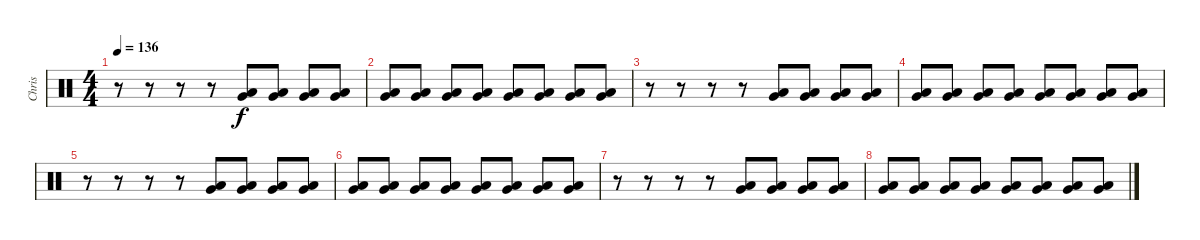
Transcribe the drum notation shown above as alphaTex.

\track ("Chris" "Chris") {instrument percussion}
\staff {score}
\articulation defaults
\ts (4 4)
\tempo 136
\clef neutral
\ks c
r.8{dy f} r.8 r.8 r.8 ("Very Low Tom (hit)" "Low Floor Tom (hit)").8 ("Very Low Tom (hit)" "Low Floor Tom (hit)").8 ("Very Low Tom (hit)" "Low Floor Tom (hit)").8 ("Very Low Tom (hit)" "Low Floor Tom (hit)").8 |
("Very Low Tom (hit)" "Low Floor Tom (hit)").8 ("Very Low Tom (hit)" "Low Floor Tom (hit)").8 ("Very Low Tom (hit)" "Low Floor Tom (hit)").8 ("Very Low Tom (hit)" "Low Floor Tom (hit)").8 ("Very Low Tom (hit)" "Low Floor Tom (hit)").8 ("Very Low Tom (hit)" "Low Floor Tom (hit)").8 ("Very Low Tom (hit)" "Low Floor Tom (hit)").8 ("Very Low Tom (hit)" "Low Floor Tom (hit)").8 |
r.8 r.8 r.8 r.8 ("Very Low Tom (hit)" "Low Floor Tom (hit)").8 ("Very Low Tom (hit)" "Low Floor Tom (hit)").8 ("Very Low Tom (hit)" "Low Floor Tom (hit)").8 ("Very Low Tom (hit)" "Low Floor Tom (hit)").8 |
("Very Low Tom (hit)" "Low Floor Tom (hit)").8 ("Very Low Tom (hit)" "Low Floor Tom (hit)").8 ("Very Low Tom (hit)" "Low Floor Tom (hit)").8 ("Very Low Tom (hit)" "Low Floor Tom (hit)").8 ("Very Low Tom (hit)" "Low Floor Tom (hit)").8 ("Very Low Tom (hit)" "Low Floor Tom (hit)").8 ("Very Low Tom (hit)" "Low Floor Tom (hit)").8 ("Very Low Tom (hit)" "Low Floor Tom (hit)").8 |
r.8 r.8 r.8 r.8 ("Very Low Tom (hit)" "Low Floor Tom (hit)").8 ("Very Low Tom (hit)" "Low Floor Tom (hit)").8 ("Very Low Tom (hit)" "Low Floor Tom (hit)").8 ("Very Low Tom (hit)" "Low Floor Tom (hit)").8 |
("Very Low Tom (hit)" "Low Floor Tom (hit)").8 ("Very Low Tom (hit)" "Low Floor Tom (hit)").8 ("Very Low Tom (hit)" "Low Floor Tom (hit)").8 ("Very Low Tom (hit)" "Low Floor Tom (hit)").8 ("Very Low Tom (hit)" "Low Floor Tom (hit)").8 ("Very Low Tom (hit)" "Low Floor Tom (hit)").8 ("Very Low Tom (hit)" "Low Floor Tom (hit)").8 ("Very Low Tom (hit)" "Low Floor Tom (hit)").8 |
r.8 r.8 r.8 r.8 ("Very Low Tom (hit)" "Low Floor Tom (hit)").8 ("Very Low Tom (hit)" "Low Floor Tom (hit)").8 ("Very Low Tom (hit)" "Low Floor Tom (hit)").8 ("Very Low Tom (hit)" "Low Floor Tom (hit)").8 |
("Very Low Tom (hit)" "Low Floor Tom (hit)").8 ("Very Low Tom (hit)" "Low Floor Tom (hit)").8 ("Very Low Tom (hit)" "Low Floor Tom (hit)").8 ("Very Low Tom (hit)" "Low Floor Tom (hit)").8 ("Very Low Tom (hit)" "Low Floor Tom (hit)").8 ("Very Low Tom (hit)" "Low Floor Tom (hit)").8 ("Very Low Tom (hit)" "Low Floor Tom (hit)").8 ("Very Low Tom (hit)" "Low Floor Tom (hit)").8
